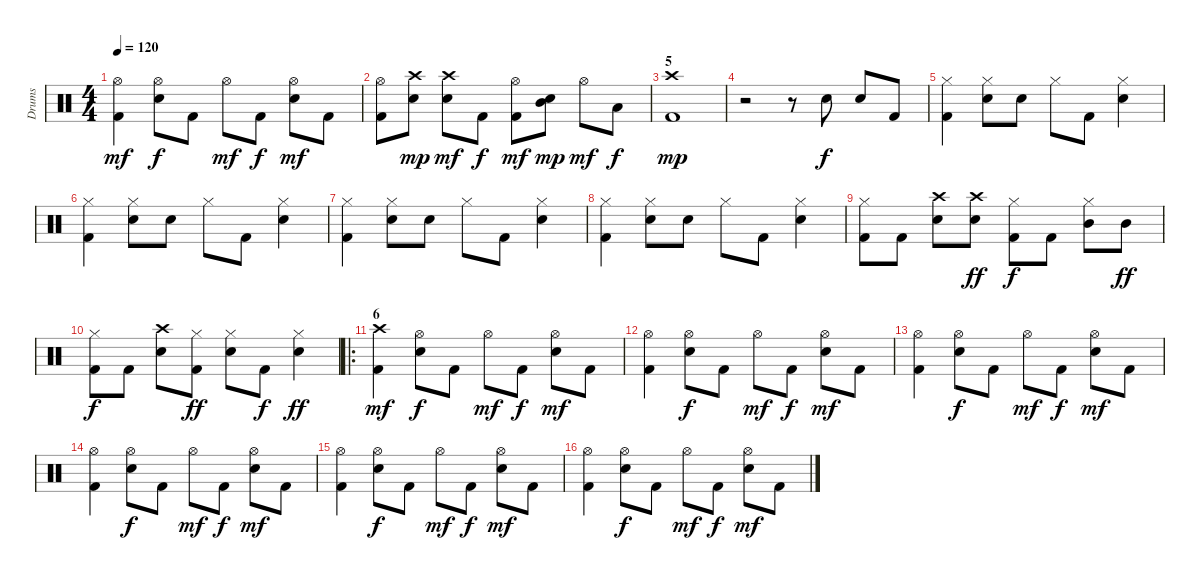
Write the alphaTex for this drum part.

\track ("Drums" "Drums") {instrument percussion}
\staff {score}
\articulation defaults
\ts (4 4)
\tempo 120
\clef neutral
\ks c
("Kick (hit) 2" "Hi-Hat (open)").4{dy mf} ("Hi-Hat (open)" "Electric Snare (hit)").8{dy f} "Kick (hit) 2".8 "Hi-Hat (open)".8{dy mf} "Kick (hit) 2".8{dy f} ("Electric Snare (hit)" "Hi-Hat (open)").8{dy mf} "Kick (hit) 2".8 |
("Kick (hit) 2" "Hi-Hat (open)").8 ("Electric Snare (hit)" "Crash high (hit)").8{dy mp} ("Electric Snare (hit)" "Crash high (hit)").8{dy mf} "Kick (hit) 2".8{dy f} ("Kick (hit) 2" "Hi-Hat (open)").8{dy mf} ("Electric Snare (hit)" "Mid Tom (hit)").8{dy mp} "Hi-Hat (open)".8{dy mf} "Low Tom (hit)".8{dy f} |
\section ("" "5")
("Crash high (hit)" "Kick (hit) 2").1{dy mp} |
r.2 r.8 "Electric Snare (hit)".8{dy f} "Electric Snare (hit)".8 "Kick (hit) 2".8 |
("Kick (hit) 2" "Hi-Hat (closed)").4 ("Hi-Hat (closed)" "Electric Snare (hit)").8 "Electric Snare (hit)".8 "Hi-Hat (closed)".8 "Kick (hit) 2".8 ("Electric Snare (hit)" "Hi-Hat (closed)").4 |
("Kick (hit) 2" "Hi-Hat (closed)").4 ("Hi-Hat (closed)" "Electric Snare (hit)").8 "Electric Snare (hit)".8 "Hi-Hat (closed)".8 "Kick (hit) 2".8 ("Electric Snare (hit)" "Hi-Hat (closed)").4 |
("Kick (hit) 2" "Hi-Hat (closed)").4 ("Hi-Hat (closed)" "Electric Snare (hit)").8 "Electric Snare (hit)".8 "Hi-Hat (closed)".8 "Kick (hit) 2".8 ("Electric Snare (hit)" "Hi-Hat (closed)").4 |
("Kick (hit) 2" "Hi-Hat (closed)").4 ("Hi-Hat (closed)" "Electric Snare (hit)").8 "Electric Snare (hit)".8 "Hi-Hat (closed)".8 "Kick (hit) 2".8 ("Electric Snare (hit)" "Hi-Hat (closed)").4 |
("Kick (hit) 2" "Hi-Hat (closed)").8 "Kick (hit) 2".8 ("Crash high (hit)" "Electric Snare (hit)").8 ("Crash high (hit)" "Electric Snare (hit)").8{dy ff} ("Kick (hit) 2" "Hi-Hat (closed)").8{dy f} "Kick (hit) 2".8 ("Mid Tom (hit)" "Hi-Hat (closed)").8 "Mid Tom (hit)".8{dy ff} |
("Kick (hit) 2" "Hi-Hat (closed)").8{dy f} "Kick (hit) 2".8 ("Crash high (hit)" "Electric Snare (hit)").8 ("Hi-Hat (closed)" "Kick (hit) 2").8{dy ff} ("Hi-Hat (closed)" "Electric Snare (hit)").8 "Kick (hit) 2".8{dy f} ("Hi-Hat (closed)" "Electric Snare (hit)").4{dy ff} |
\ro
\section ("" "6")
("Kick (hit) 2" "Crash high (hit)").4{dy mf} ("Hi-Hat (open)" "Electric Snare (hit)").8{dy f} "Kick (hit) 2".8 "Hi-Hat (open)".8{dy mf} "Kick (hit) 2".8{dy f} ("Electric Snare (hit)" "Hi-Hat (open)").8{dy mf} "Kick (hit) 2".8 |
("Kick (hit) 2" "Hi-Hat (open)").4 ("Hi-Hat (open)" "Electric Snare (hit)").8{dy f} "Kick (hit) 2".8 "Hi-Hat (open)".8{dy mf} "Kick (hit) 2".8{dy f} ("Electric Snare (hit)" "Hi-Hat (open)").8{dy mf} "Kick (hit) 2".8 |
("Kick (hit) 2" "Hi-Hat (open)").4 ("Hi-Hat (open)" "Electric Snare (hit)").8{dy f} "Kick (hit) 2".8 "Hi-Hat (open)".8{dy mf} "Kick (hit) 2".8{dy f} ("Electric Snare (hit)" "Hi-Hat (open)").8{dy mf} "Kick (hit) 2".8 |
("Kick (hit) 2" "Hi-Hat (open)").4 ("Hi-Hat (open)" "Electric Snare (hit)").8{dy f} "Kick (hit) 2".8 "Hi-Hat (open)".8{dy mf} "Kick (hit) 2".8{dy f} ("Electric Snare (hit)" "Hi-Hat (open)").8{dy mf} "Kick (hit) 2".8 |
("Kick (hit) 2" "Hi-Hat (open)").4 ("Hi-Hat (open)" "Electric Snare (hit)").8{dy f} "Kick (hit) 2".8 "Hi-Hat (open)".8{dy mf} "Kick (hit) 2".8{dy f} ("Electric Snare (hit)" "Hi-Hat (open)").8{dy mf} "Kick (hit) 2".8 |
("Kick (hit) 2" "Hi-Hat (open)").4 ("Hi-Hat (open)" "Electric Snare (hit)").8{dy f} "Kick (hit) 2".8 "Hi-Hat (open)".8{dy mf} "Kick (hit) 2".8{dy f} ("Electric Snare (hit)" "Hi-Hat (open)").8{dy mf} "Kick (hit) 2".8
